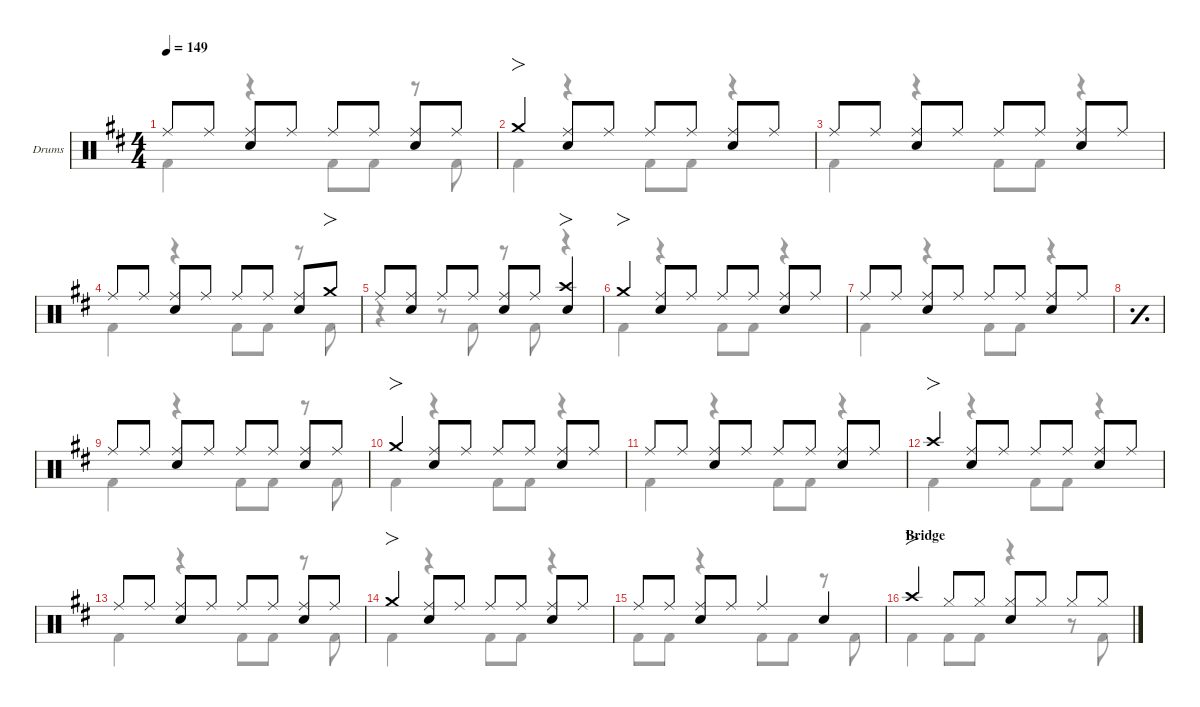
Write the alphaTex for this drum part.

\defaultSystemsLayout 4
\hideDynamics
\bracketExtendMode nobrackets
\firstSystemTrackNameOrientation horizontal
\track ("Drums" "Drums") {defaultSystemsLayout 4 instrument percussion}
\staff {score}
\articulation defaults
\voice
\ts (4 4)
\tempo 149
\clef neutral
\scale
0.244461
\ks d "Ride (middle)"{acc forcenatural}.8{dy f beam Up} "Ride (middle)"{acc forcenatural}.8{beam Up}
("Ride (middle)"{acc forcenatural} "Snare (hit) 2"{acc forcenatural}).8{beam Up} "Ride (middle)"{acc forcenatural}.8{dy mf beam Up} "Ride (middle)"{acc forcenatural}.8{dy f beam Up} "Ride (middle)"{acc forcenatural}.8{beam Up} ("Ride (middle)"{acc forcenatural} "Snare (hit) 2"{acc forcenatural}).8{beam Up} "Ride (middle)"{acc forcenatural}.8{dy mf beam Up} |
\scale
0.266618 "Crash medium (hit)"{acc forcenatural}.4{fo beam Up} ("Ride (middle)"{acc forcenatural} "Snare (hit) 2"{acc forcenatural}).8{dy f beam Up} "Ride (middle)"{acc forcenatural}.8{dy mf beam Up} "Ride (middle)"{acc forcenatural}.8{dy f beam Up} "Ride (middle)"{acc forcenatural}.8{beam Up} ("Ride (middle)"{acc forcenatural} "Snare (hit) 2"{acc forcenatural}).8{beam Up} "Ride (middle)"{acc forcenatural}.8{dy mf beam Up} |
\scale
0.244461 "Ride (middle)"{acc forcenatural}.8{dy f beam Up} "Ride (middle)"{acc forcenatural}.8{beam Up} ("Ride (middle)"{acc forcenatural} "Snare (hit) 2"{acc forcenatural}).8{beam Up} "Ride (middle)"{acc forcenatural}.8{dy mf beam Up} "Ride (middle)"{acc forcenatural}.8{dy f beam Up} "Ride (middle)"{acc forcenatural}.8{beam Up} ("Ride (middle)"{acc forcenatural} "Snare (hit) 2"{acc forcenatural}).8{beam Up} "Ride (middle)"{acc forcenatural}.8{dy mf beam Up} |
\scale
0.24446 "Ride (middle)"{acc forcenatural}.8{dy f beam Up} "Ride (middle)"{acc forcenatural}.8{beam Up} ("Ride (middle)"{acc forcenatural} "Snare (hit) 2"{acc forcenatural}).8{beam Up} "Ride (middle)"{acc forcenatural}.8{dy mf beam Up} "Ride (middle)"{acc forcenatural}.8{dy f beam Up} "Ride (middle)"{acc forcenatural}.8{beam Up} ("Ride (middle)"{acc forcenatural} "Snare (hit) 2"{acc forcenatural}).8{beam Up} "Crash medium (hit)"{acc forcenatural}.8{fo beam Up} |
\scale
0.244461 "Ride (middle)"{acc forcenatural}.8{beam Up} ("Ride (middle)"{acc forcenatural} "Snare (hit) 2"{acc forcenatural}).8{beam Up} "Ride (middle)"{acc forcenatural}.8{beam Up} "Ride (middle)"{acc forcenatural}.8{dy mf beam Up} ("Ride (middle)"{acc forcenatural} "Snare (hit) 2"{acc forcenatural}).8{dy f beam Up} "Ride (middle)"{acc forcenatural}.8{dy mf beam Up} ("Snare (hit) 2"{acc forcenatural} "Crash high (hit)"{acc forcenatural}).4{fo dy f beam Up} |
\scale
0.267605 "Crash medium (hit)"{acc forcenatural}.4{fo dy mf beam Up} ("Ride (middle)"{acc forcenatural} "Snare (hit) 2"{acc forcenatural}).8{dy f beam Up} "Ride (middle)"{acc forcenatural}.8{dy mf beam Up} "Ride (middle)"{acc forcenatural}.8{dy f beam Up} "Ride (middle)"{acc forcenatural}.8{beam Up} ("Ride (middle)"{acc forcenatural} "Snare (hit) 2"{acc forcenatural}).8{beam Up} "Ride (middle)"{acc forcenatural}.8{dy mf beam Up} |
\scale
0.244132 "Ride (middle)"{acc forcenatural}.8{dy f beam Up} "Ride (middle)"{acc forcenatural}.8{beam Up} ("Ride (middle)"{acc forcenatural} "Snare (hit) 2"{acc forcenatural}).8{beam Up} "Ride (middle)"{acc forcenatural}.8{dy mf beam Up} "Ride (middle)"{acc forcenatural}.8{dy f beam Up} "Ride (middle)"{acc forcenatural}.8{beam Up} ("Ride (middle)"{acc forcenatural} "Snare (hit) 2"{acc forcenatural}).8{beam Up} "Ride (middle)"{acc forcenatural}.8{dy mf beam Up} |
\simile simple
\scale
0.244132 |
\simile none
\scale
0.244132 "Ride (middle)"{acc forcenatural}.8{dy f beam Up} "Ride (middle)"{acc forcenatural}.8{beam Up} ("Ride (middle)"{acc forcenatural} "Snare (hit) 2"{acc forcenatural}).8{beam Up} "Ride (middle)"{acc forcenatural}.8{dy mf beam Up} "Ride (middle)"{acc forcenatural}.8{dy f beam Up} "Ride (middle)"{acc forcenatural}.8{beam Up} ("Ride (middle)"{acc forcenatural} "Snare (hit) 2"{acc forcenatural}).8{beam Up} "Ride (middle)"{acc forcenatural}.8{dy mf beam Up} |
\scale
0.266618 "Crash medium (hit)"{acc forcenatural}.4{fo beam Up} ("Ride (middle)"{acc forcenatural} "Snare (hit) 2"{acc forcenatural}).8{dy f beam Up} "Ride (middle)"{acc forcenatural}.8{dy mf beam Up} "Ride (middle)"{acc forcenatural}.8{dy f beam Up} "Ride (middle)"{acc forcenatural}.8{beam Up} ("Ride (middle)"{acc forcenatural} "Snare (hit) 2"{acc forcenatural}).8{beam Up} "Ride (middle)"{acc forcenatural}.8{dy mf beam Up} |
\scale
0.245118 "Ride (middle)"{acc forcenatural}.8{dy f beam Up} "Ride (middle)"{acc forcenatural}.8{beam Up} ("Ride (middle)"{acc forcenatural} "Snare (hit) 2"{acc forcenatural}).8{beam Up} "Ride (middle)"{acc forcenatural}.8{dy mf beam Up} "Ride (middle)"{acc forcenatural}.8{dy f beam Up} "Ride (middle)"{acc forcenatural}.8{beam Up} ("Ride (middle)"{acc forcenatural} "Snare (hit) 2"{acc forcenatural}).8{beam Up} "Ride (middle)"{acc forcenatural}.8{dy mf beam Up} |
\scale
0.244132 "Crash high (hit)"{acc forcenatural}.4{fo beam Up} ("Ride (middle)"{acc forcenatural} "Snare (hit) 2"{acc forcenatural}).8{dy f beam Up} "Ride (middle)"{acc forcenatural}.8{dy mf beam Up} "Ride (middle)"{acc forcenatural}.8{dy f beam Up} "Ride (middle)"{acc forcenatural}.8{beam Up} ("Ride (middle)"{acc forcenatural} "Snare (hit) 2"{acc forcenatural}).8{beam Up} "Ride (middle)"{acc forcenatural}.8{dy mf beam Up} |
\scale
0.244132 "Ride (middle)"{acc forcenatural}.8{dy f beam Up} "Ride (middle)"{acc forcenatural}.8{beam Up} ("Ride (middle)"{acc forcenatural} "Snare (hit) 2"{acc forcenatural}).8{beam Up} "Ride (middle)"{acc forcenatural}.8{dy mf beam Up} "Ride (middle)"{acc forcenatural}.8{dy f beam Up} "Ride (middle)"{acc forcenatural}.8{beam Up} ("Ride (middle)"{acc forcenatural} "Snare (hit) 2"{acc forcenatural}).8{beam Up} "Ride (middle)"{acc forcenatural}.8{dy mf beam Up} |
\scale
0.511737 "Crash medium (hit)"{acc forcenatural}.4{fo beam Up} ("Ride (middle)"{acc forcenatural} "Snare (hit) 2"{acc forcenatural}).8{dy f beam Up} "Ride (middle)"{acc forcenatural}.8{dy mf beam Up} "Ride (middle)"{acc forcenatural}.8{dy f beam Up} "Ride (middle)"{acc forcenatural}.8{beam Up} ("Ride (middle)"{acc forcenatural} "Snare (hit) 2"{acc forcenatural}).8{beam Up} "Ride (middle)"{acc forcenatural}.8{dy mf beam Up} |
\scale
0.488263 "Ride (middle)"{acc forcenatural}.8{dy f beam Up} "Ride (middle)"{acc forcenatural}.8{beam Up} ("Ride (middle)"{acc forcenatural} "Snare (hit) 2"{acc forcenatural}).8{beam Up} "Ride (middle)"{acc forcenatural}.8{dy mf beam Up} "Ride (middle)"{acc forcenatural}.4{dy f beam Up} "Snare (hit) 2"{acc forcenatural}.4{beam Up} |
\section ("" "Bridge")
\scale
0.267605 "Crash high (hit)"{acc forcenatural}.4{fo beam Up} "Hi-Hat (closed)"{acc forcenatural}.8{beam Up} "Hi-Hat (closed)"{acc forcenatural}.8{dy mp beam Up} ("Hi-Hat (closed)"{acc forcenatural} "Snare (hit) 2"{acc forcenatural}).8{dy f beam Up} "Hi-Hat (closed)"{acc forcenatural}.8{dy mp beam Up} "Hi-Hat (closed)"{acc forcenatural}.8{dy f beam Up} "Hi-Hat (closed)"{acc forcenatural}.8{dy mp beam Up}
\voice
\clef neutral
\ottava regular
\simile none
\scale
0.244461
\ks d "Kick (hit) 2"{acc forcenatural}.4{dy f beam Down}
r.4{beam Down} "Kick (hit) 2"{acc forcenatural}.8{beam Down} "Kick (hit) 2"{acc forcenatural}.8{beam Down} r.8{beam Down} "Kick (hit) 2"{acc forcenatural}.8{beam Down} |
\scale
0.266618 "Kick (hit) 2"{acc forcenatural}.4{beam Down} r.4{beam Down} "Kick (hit) 2"{acc forcenatural}.8{beam Down} "Kick (hit) 2"{acc forcenatural}.8{beam Down} r.4{beam Down} |
\scale
0.244461 "Kick (hit) 2"{acc forcenatural}.4{beam Down} r.4{beam Down} "Kick (hit) 2"{acc forcenatural}.8{beam Down} "Kick (hit) 2"{acc forcenatural}.8{beam Down} r.4{beam Down} |
\scale
0.24446 "Kick (hit) 2"{acc forcenatural}.4{beam Down} r.4{beam Down} "Kick (hit) 2"{acc forcenatural}.8{beam Down} "Kick (hit) 2"{acc forcenatural}.8{beam Down} r.8{beam Down} "Kick (hit) 2"{acc forcenatural}.8{beam Down} |
\scale
0.244461 r.4{beam Down} r.8{beam Down} "Kick (hit) 2"{acc forcenatural}.8{beam Down} r.8{beam Down} "Kick (hit) 2"{acc forcenatural}.8{beam Down} r.4{beam Down} |
\scale
0.267605 "Kick (hit) 2"{acc forcenatural}.4{beam Down} r.4{beam Down} "Kick (hit) 2"{acc forcenatural}.8{beam Down} "Kick (hit) 2"{acc forcenatural}.8{beam Down} r.4{beam Down} |
\scale
0.244132 "Kick (hit) 2"{acc forcenatural}.4{beam Down} r.4{beam Down} "Kick (hit) 2"{acc forcenatural}.8{beam Down} "Kick (hit) 2"{acc forcenatural}.8{beam Down} r.4{beam Down} |
\simile simple
\scale
0.244132 |
\simile none
\scale
0.244132 "Kick (hit) 2"{acc forcenatural}.4{beam Down} r.4{beam Down} "Kick (hit) 2"{acc forcenatural}.8{beam Down} "Kick (hit) 2"{acc forcenatural}.8{beam Down} r.8{beam Down} "Kick (hit) 2"{acc forcenatural}.8{beam Down} |
\scale
0.266618 "Kick (hit) 2"{acc forcenatural}.4{beam Down} r.4{beam Down} "Kick (hit) 2"{acc forcenatural}.8{beam Down} "Kick (hit) 2"{acc forcenatural}.8{beam Down} r.4{beam Down} |
\scale
0.245118 "Kick (hit) 2"{acc forcenatural}.4{beam Down} r.4{beam Down} "Kick (hit) 2"{acc forcenatural}.8{beam Down} "Kick (hit) 2"{acc forcenatural}.8{beam Down} r.4{beam Down} |
\scale
0.244132 "Kick (hit) 2"{acc forcenatural}.4{beam Down} r.4{beam Down} "Kick (hit) 2"{acc forcenatural}.8{beam Down} "Kick (hit) 2"{acc forcenatural}.8{beam Down} r.4{beam Down} |
\scale
0.244132 "Kick (hit) 2"{acc forcenatural}.4{beam Down} r.4{beam Down} "Kick (hit) 2"{acc forcenatural}.8{beam Down} "Kick (hit) 2"{acc forcenatural}.8{beam Down} r.8{beam Down} "Kick (hit) 2"{acc forcenatural}.8{beam Down} |
\scale
0.511737 "Kick (hit) 2"{acc forcenatural}.4{beam Down} r.4{beam Down} "Kick (hit) 2"{acc forcenatural}.8{beam Down} "Kick (hit) 2"{acc forcenatural}.8{beam Down} r.4{beam Down} |
\scale
0.488263 "Kick (hit) 2"{acc forcenatural}.8{beam Down} "Kick (hit) 2"{acc forcenatural}.8{beam Down} r.4{beam Down} "Kick (hit) 2"{acc forcenatural}.8{beam Down} "Kick (hit) 2"{acc forcenatural}.8{beam Down} r.8{beam Down} "Kick (hit) 2"{acc forcenatural}.8{beam Down} |
\scale
0.267605 "Kick (hit) 2"{acc forcenatural}.4{beam Down} "Kick (hit) 2"{acc forcenatural}.8{beam Down} "Kick (hit) 2"{acc forcenatural}.8{beam Down} r.4{beam Down} r.8{beam Down} "Kick (hit) 2"{acc forcenatural}.8{beam Down}
